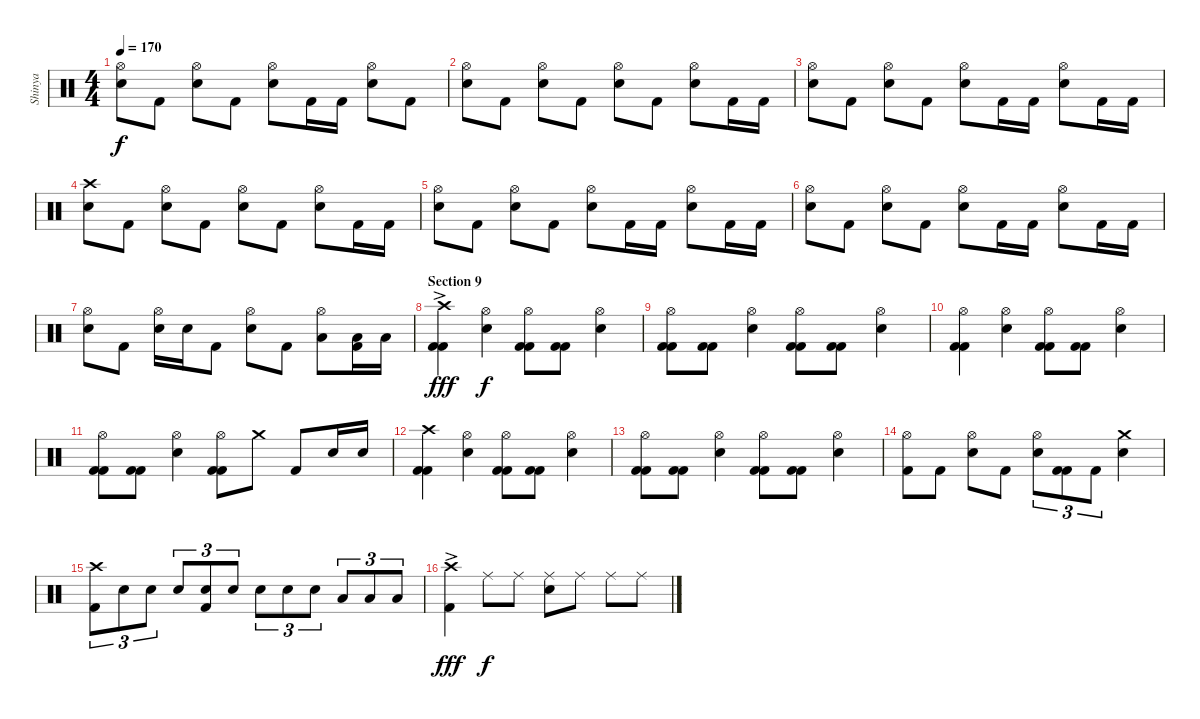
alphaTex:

\track ("Shinya" "Shinya") {instrument percussion}
\staff {score}
\articulation defaults
\ts (4 4)
\tempo 170
\clef neutral
\ks c
("Hi-Hat (open)" "Snare (hit) 2").8{dy f} "Kick (hit) 2".8 ("Hi-Hat (open)" "Snare (hit) 2").8 "Kick (hit) 2".8 ("Hi-Hat (open)" "Snare (hit) 2").8 "Kick (hit) 2".16 "Kick (hit) 2".16 ("Hi-Hat (open)" "Snare (hit) 2").8 "Kick (hit) 2".8 |
("Hi-Hat (open)" "Snare (hit) 2").8 "Kick (hit) 2".8 ("Hi-Hat (open)" "Snare (hit) 2").8 "Kick (hit) 2".8 ("Hi-Hat (open)" "Snare (hit) 2").8 "Kick (hit) 2".8 ("Hi-Hat (open)" "Snare (hit) 2").8 "Kick (hit) 2".16 "Kick (hit) 2".16 |
("Hi-Hat (open)" "Snare (hit) 2").8 "Kick (hit) 2".8 ("Hi-Hat (open)" "Snare (hit) 2").8 "Kick (hit) 2".8 ("Hi-Hat (open)" "Snare (hit) 2").8 "Kick (hit) 2".16 "Kick (hit) 2".16 ("Hi-Hat (open)" "Snare (hit) 2").8 "Kick (hit) 2".16 "Kick (hit) 2".16 |
("Crash high (hit)" "Snare (hit) 2").8 "Kick (hit) 2".8 ("Hi-Hat (open)" "Snare (hit) 2").8 "Kick (hit) 2".8 ("Hi-Hat (open)" "Snare (hit) 2").8 "Kick (hit) 2".8 ("Hi-Hat (open)" "Snare (hit) 2").8 "Kick (hit) 2".16 "Kick (hit) 2".16 |
("Hi-Hat (open)" "Snare (hit) 2").8 "Kick (hit) 2".8 ("Hi-Hat (open)" "Snare (hit) 2").8 "Kick (hit) 2".8 ("Hi-Hat (open)" "Snare (hit) 2").8 "Kick (hit) 2".16 "Kick (hit) 2".16 ("Hi-Hat (open)" "Snare (hit) 2").8 "Kick (hit) 2".16 "Kick (hit) 2".16 |
("Hi-Hat (open)" "Snare (hit) 2").8 "Kick (hit) 2".8 ("Hi-Hat (open)" "Snare (hit) 2").8 "Kick (hit) 2".8 ("Hi-Hat (open)" "Snare (hit) 2").8 "Kick (hit) 2".16 "Kick (hit) 2".16 ("Hi-Hat (open)" "Snare (hit) 2").8 "Kick (hit) 2".16 "Kick (hit) 2".16 |
("Hi-Hat (open)" "Snare (hit) 2").8 "Kick (hit) 2".8 ("Hi-Hat (open)" "Snare (hit) 2").16 "Snare (hit) 2".16 "Kick (hit) 2".8 ("Hi-Hat (open)" "Snare (hit) 2").8 "Kick (hit) 2".8 ("Hi-Hat (open)" "Low Tom (hit)").8 ("Low Floor Tom (hit)" "Kick (hit) 2").16 "Low Floor Tom (hit)".16 |
\section ("" "Section 9")
("Crash high (hit)"{ac} "Kick (hit) 2" "Kick (hit) 2").4{dy fff} ("Hi-Hat (open)" "Snare (hit) 2").4{dy f} ("Hi-Hat (open)" "Kick (hit) 2" "Kick (hit) 2").8 ("Kick (hit) 2" "Kick (hit) 2").8 ("Hi-Hat (open)" "Snare (hit) 2").4 |
("Hi-Hat (open)" "Kick (hit) 2" "Kick (hit) 2").8 ("Kick (hit) 2" "Kick (hit) 2").8 ("Hi-Hat (open)" "Snare (hit) 2").4 ("Hi-Hat (open)" "Kick (hit) 2" "Kick (hit) 2").8 ("Kick (hit) 2" "Kick (hit) 2").8 ("Hi-Hat (open)" "Snare (hit) 2").4 |
("Hi-Hat (open)" "Kick (hit) 2" "Kick (hit) 2").4 ("Hi-Hat (open)" "Snare (hit) 2").4 ("Hi-Hat (open)" "Kick (hit) 2" "Kick (hit) 2").8 ("Kick (hit) 2" "Kick (hit) 2").8 ("Hi-Hat (open)" "Snare (hit) 2").4 |
("Hi-Hat (open)" "Kick (hit) 2" "Kick (hit) 2").8 ("Kick (hit) 2" "Kick (hit) 2").8 ("Hi-Hat (open)" "Snare (hit) 2").4 ("Hi-Hat (open)" "Kick (hit) 2" "Kick (hit) 2").8 "Crash medium (hit)".8 "Kick (hit) 2".8 "Snare (hit) 2".16 "Snare (hit) 2".16 |
("Crash high (hit)" "Kick (hit) 2" "Kick (hit) 2").4 ("Hi-Hat (open)" "Snare (hit) 2").4 ("Hi-Hat (open)" "Kick (hit) 2" "Kick (hit) 2").8 ("Kick (hit) 2" "Kick (hit) 2").8 ("Hi-Hat (open)" "Snare (hit) 2").4 |
("Hi-Hat (open)" "Kick (hit) 2" "Kick (hit) 2").8 ("Kick (hit) 2" "Kick (hit) 2").8 ("Hi-Hat (open)" "Snare (hit) 2").4 ("Hi-Hat (open)" "Kick (hit) 2" "Kick (hit) 2").8 ("Kick (hit) 2" "Kick (hit) 2").8 ("Hi-Hat (open)" "Snare (hit) 2").4 |
("Hi-Hat (open)" "Kick (hit) 2").8 "Kick (hit) 2".8 ("Hi-Hat (open)" "Snare (hit) 2").8 "Kick (hit) 2".8 ("Hi-Hat (open)" "Snare (hit) 2").8{tu (3 2)} ("Kick (hit) 2" "Kick (hit) 2").8{tu (3 2)} "Kick (hit) 2".8{tu (3 2)} ("Crash medium (hit)" "Snare (hit) 2").4 |
("Crash high (hit)" "Kick (hit) 2").8{tu (3 2)} "Snare (hit) 2".8{tu (3 2)} "Snare (hit) 2".8{tu (3 2)} "Snare (hit) 2".8{tu (3 2)} ("Snare (hit) 2" "Kick (hit) 2").8{tu (3 2)} "Snare (hit) 2".8{tu (3 2)} "Snare (hit) 2".8{tu (3 2)} "Snare (hit) 2".8{tu (3 2)} "Snare (hit) 2".8{tu (3 2)} "Low Tom (hit)".8{tu (3 2)} "Low Tom (hit)".8{tu (3 2)} "Low Floor Tom (hit)".8{tu (3 2)} |
("Crash high (hit)"{ac} "Kick (hit) 2").4{dy fff} "Ride (middle)".8{dy f} "Ride (middle)".8 ("Ride (middle)" "Snare (hit) 2").8 "Ride (middle)".8 "Ride (middle)".8 "Ride (middle)".8
